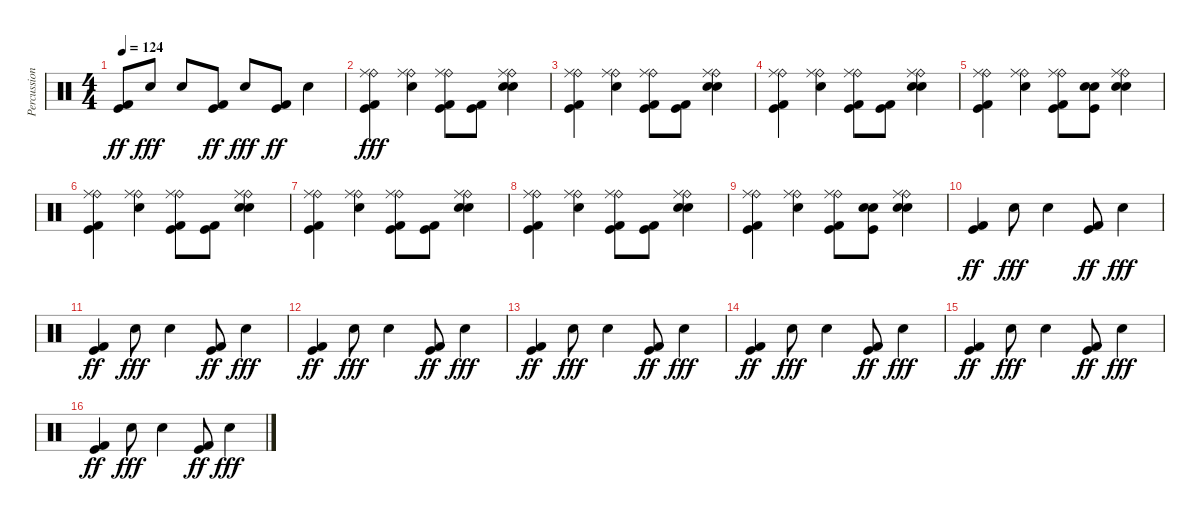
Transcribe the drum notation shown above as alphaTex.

\track ("Percussion" "Percussion") {instrument percussion}
\staff {score}
\articulation defaults
\ts (4 4)
\tempo 124
\clef neutral
\ks c
("Kick (hit) 2" "Kick (hit)").8{dy ff} "Hand Clap (hit)".8{dy fff} "Hand Clap (hit)".8 ("Kick (hit) 2" "Kick (hit)").8{dy ff} "Hand Clap (hit)".8{dy fff} ("Kick (hit) 2" "Kick (hit)").8{dy ff} "Hand Clap (hit)".4 |
("Ride (bell)" "Ride (middle)" "Kick (hit) 2" "Kick (hit)").4{dy fff} ("Ride (bell)" "Ride (middle)" "Snare (hit) 2").4 ("Ride (bell)" "Ride (middle)" "Kick (hit) 2" "Kick (hit)").8 ("Kick (hit) 2" "Kick (hit)").8 ("Ride (bell)" "Ride (middle)" "Snare (hit) 2" "Electric Snare (hit)").4 |
("Ride (bell)" "Ride (middle)" "Kick (hit) 2" "Kick (hit)").4 ("Ride (bell)" "Ride (middle)" "Snare (hit) 2").4 ("Ride (bell)" "Ride (middle)" "Kick (hit) 2" "Kick (hit)").8 ("Kick (hit) 2" "Kick (hit)").8 ("Ride (bell)" "Ride (middle)" "Snare (hit) 2" "Electric Snare (hit)").4 |
("Ride (bell)" "Ride (middle)" "Kick (hit) 2" "Kick (hit)").4 ("Ride (bell)" "Ride (middle)" "Snare (hit) 2").4 ("Ride (bell)" "Ride (middle)" "Kick (hit) 2" "Kick (hit)").8 ("Kick (hit) 2" "Kick (hit)").8 ("Ride (bell)" "Ride (middle)" "Snare (hit) 2" "Electric Snare (hit)").4 |
("Ride (bell)" "Ride (middle)" "Kick (hit) 2" "Kick (hit)").4 ("Ride (bell)" "Ride (middle)" "Snare (hit) 2").4 ("Ride (bell)" "Ride (middle)" "Kick (hit) 2" "Kick (hit)").8 ("Snare (hit) 2" "Kick (hit)" "Electric Snare (hit)").8 ("Ride (bell)" "Ride (middle)" "Snare (hit) 2" "Electric Snare (hit)").4 |
("Ride (bell)" "Ride (middle)" "Kick (hit) 2" "Kick (hit)").4 ("Ride (bell)" "Ride (middle)" "Snare (hit) 2").4 ("Ride (bell)" "Ride (middle)" "Kick (hit) 2" "Kick (hit)").8 ("Kick (hit) 2" "Kick (hit)").8 ("Ride (bell)" "Ride (middle)" "Snare (hit) 2" "Electric Snare (hit)").4 |
("Ride (bell)" "Ride (middle)" "Kick (hit) 2" "Kick (hit)").4 ("Ride (bell)" "Ride (middle)" "Snare (hit) 2").4 ("Ride (bell)" "Ride (middle)" "Kick (hit) 2" "Kick (hit)").8 ("Kick (hit) 2" "Kick (hit)").8 ("Ride (bell)" "Ride (middle)" "Snare (hit) 2" "Electric Snare (hit)").4 |
("Ride (bell)" "Ride (middle)" "Kick (hit) 2" "Kick (hit)").4 ("Ride (bell)" "Ride (middle)" "Snare (hit) 2").4 ("Ride (bell)" "Ride (middle)" "Kick (hit) 2" "Kick (hit)").8 ("Kick (hit) 2" "Kick (hit)").8 ("Ride (bell)" "Ride (middle)" "Snare (hit) 2" "Electric Snare (hit)").4 |
("Ride (bell)" "Ride (middle)" "Kick (hit) 2" "Kick (hit)").4 ("Ride (bell)" "Ride (middle)" "Snare (hit) 2").4 ("Ride (bell)" "Ride (middle)" "Kick (hit) 2" "Kick (hit)").8 ("Snare (hit) 2" "Kick (hit)" "Electric Snare (hit)").8 ("Ride (bell)" "Ride (middle)" "Snare (hit) 2" "Electric Snare (hit)").4 |
("Kick (hit) 2" "Kick (hit)").4{dy ff} "Hand Clap (hit)".8{dy fff} "Hand Clap (hit)".4 ("Kick (hit) 2" "Kick (hit)").8{dy ff} "Hand Clap (hit)".4{dy fff} |
("Kick (hit) 2" "Kick (hit)").4{dy ff} "Hand Clap (hit)".8{dy fff} "Hand Clap (hit)".4 ("Kick (hit) 2" "Kick (hit)").8{dy ff} "Hand Clap (hit)".4{dy fff} |
("Kick (hit) 2" "Kick (hit)").4{dy ff} "Hand Clap (hit)".8{dy fff} "Hand Clap (hit)".4 ("Kick (hit) 2" "Kick (hit)").8{dy ff} "Hand Clap (hit)".4{dy fff} |
("Kick (hit) 2" "Kick (hit)").4{dy ff} "Hand Clap (hit)".8{dy fff} "Hand Clap (hit)".4 ("Kick (hit) 2" "Kick (hit)").8{dy ff} "Hand Clap (hit)".4{dy fff} |
("Kick (hit) 2" "Kick (hit)").4{dy ff} "Hand Clap (hit)".8{dy fff} "Hand Clap (hit)".4 ("Kick (hit) 2" "Kick (hit)").8{dy ff} "Hand Clap (hit)".4{dy fff} |
("Kick (hit) 2" "Kick (hit)").4{dy ff} "Hand Clap (hit)".8{dy fff} "Hand Clap (hit)".4 ("Kick (hit) 2" "Kick (hit)").8{dy ff} "Hand Clap (hit)".4{dy fff} |
("Kick (hit) 2" "Kick (hit)").4{dy ff} "Hand Clap (hit)".8{dy fff} "Hand Clap (hit)".4 ("Kick (hit) 2" "Kick (hit)").8{dy ff} "Hand Clap (hit)".4{dy fff}
